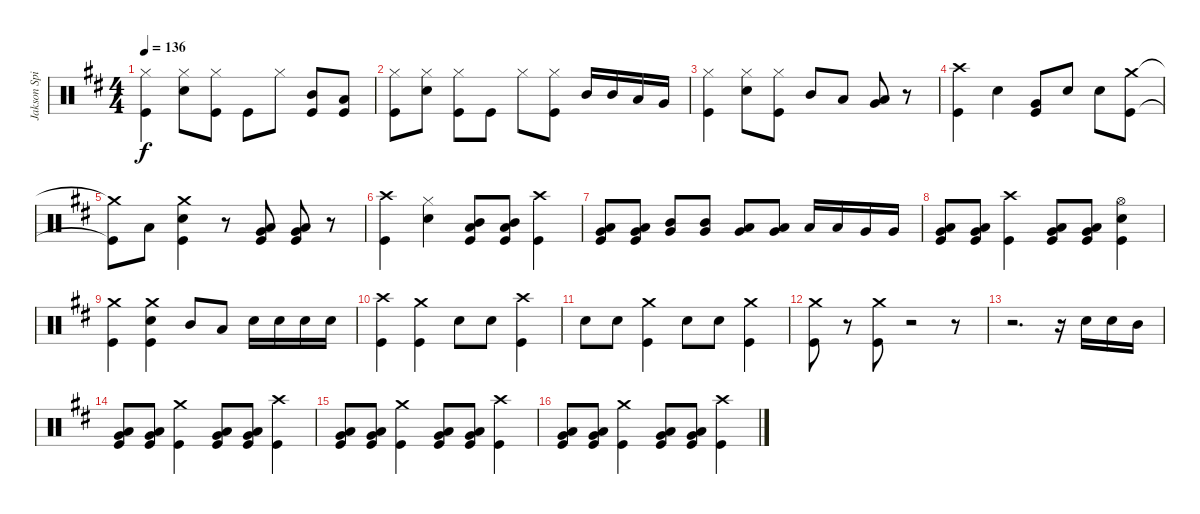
\track ("Jakson Spires Drums" "Jakson Spi") {instrument percussion}
\staff {score}
\articulation defaults
\ts (4 4)
\tempo 136
\clef neutral
\ks d
("Hi-Hat (closed)" "Kick (hit)").4{dy f} ("Hi-Hat (closed)" "Snare (hit) 2").8 ("Hi-Hat (closed)" "Kick (hit)").8 "Kick (hit)".8 "Hi-Hat (closed)".8 ("Mid Tom (hit)" "Kick (hit)").8 ("Low Tom (hit)" "Kick (hit)").8 |
("Hi-Hat (closed)" "Kick (hit)").8 ("Hi-Hat (closed)" "Snare (hit) 2").8 ("Hi-Hat (closed)" "Kick (hit)").8 "Kick (hit)".8 "Hi-Hat (closed)".8 ("Hi-Hat (closed)" "Kick (hit)").8 "Mid Tom (hit)".16 "Mid Tom (hit)".16 "Low Tom (hit)".16 "Very Low Tom (hit)".16 |
("Hi-Hat (closed)" "Kick (hit)").4 ("Hi-Hat (closed)" "Snare (hit) 2").8 ("Hi-Hat (closed)" "Kick (hit)").8 "Mid Tom (hit)".8 "Low Tom (hit)".8 ("Very Low Tom (hit)" "Low Floor Tom (hit)").8 r.8 |
("Crash high (hit)" "Kick (hit)").4 "Snare (hit) 2".4 ("Very Low Tom (hit)" "Kick (hit)").8 "Snare (hit) 2".8 "Snare (hit) 2".8 ("Crash medium (hit)" "Kick (hit)").8 |
("Crash medium (hit)"{t} "Kick (hit)"{t}).8 "Low Tom (hit)".8 ("Crash medium (hit)" "Snare (hit) 2" "Kick (hit)").4 r.8 ("Very Low Tom (hit)" "Low Floor Tom (hit)" "Kick (hit)").8 ("Very Low Tom (hit)" "Low Floor Tom (hit)" "Kick (hit)").8 r.8 |
("Crash high (hit)" "Kick (hit)").4 ("Hi-Hat (closed)" "Snare (hit) 2").4 ("Mid Tom (hit)" "Low Tom (hit)" "Kick (hit)").8 ("Mid Tom (hit)" "Low Tom (hit)" "Kick (hit)").8 ("Crash high (hit)" "Kick (hit)").4 |
("Very Low Tom (hit)" "Low Floor Tom (hit)" "Kick (hit)").8 ("Very Low Tom (hit)" "Low Floor Tom (hit)" "Kick (hit)").8 ("Mid Tom (hit)" "Very Low Tom (hit)").8 ("Mid Tom (hit)" "Very Low Tom (hit)").8 ("Low Tom (hit)" "Very Low Tom (hit)").8 ("Low Tom (hit)" "Very Low Tom (hit)").8 "Low Tom (hit)".16 "Low Tom (hit)".16 "Very Low Tom (hit)".16 "Very Low Tom (hit)".16 |
("Low Tom (hit)" "Very Low Tom (hit)" "Kick (hit)").8 ("Low Tom (hit)" "Very Low Tom (hit)" "Kick (hit)").8 ("Crash high (hit)" "Kick (hit)").4 ("Very Low Tom (hit)" "Low Floor Tom (hit)" "Kick (hit)").8 ("Very Low Tom (hit)" "Low Floor Tom (hit)" "Kick (hit)").8 ("Hi-Hat (open)" "Snare (hit) 2" "Kick (hit)").4 |
("Crash medium (hit)" "Kick (hit)").4 ("Crash medium (hit)" "Snare (hit) 2" "Kick (hit)").4 "Mid Tom (hit)".8 "Low Tom (hit)".8 "Snare (hit) 2".16 "Snare (hit) 2".16 "Snare (hit) 2".16 "Snare (hit) 2".16 |
("Crash high (hit)" "Kick (hit)").4 ("Crash medium (hit)" "Kick (hit)").4 "Snare (hit) 2".8 "Snare (hit) 2".8 ("Crash high (hit)" "Kick (hit)").4 |
"Snare (hit) 2".8 "Snare (hit) 2".8 ("Crash medium (hit)" "Kick (hit)").4 "Snare (hit) 2".8 "Snare (hit) 2".8 ("Crash medium (hit)" "Kick (hit)").4 |
("Crash medium (hit)" "Kick (hit)").8 r.8 ("Crash medium (hit)" "Kick (hit)").8 r.2 r.8 |
r.2{d} r.16 "Snare (hit) 2".16 "Snare (hit) 2".16 "Mid Tom (hit)".16 |
("Low Tom (hit)" "Very Low Tom (hit)" "Kick (hit)").8 ("Low Tom (hit)" "Very Low Tom (hit)" "Kick (hit)").8 ("Crash medium (hit)" "Kick (hit)").4 ("Low Tom (hit)" "Very Low Tom (hit)" "Kick (hit)").8 ("Low Tom (hit)" "Very Low Tom (hit)" "Kick (hit)").8 ("Crash high (hit)" "Kick (hit)").4 |
("Low Tom (hit)" "Very Low Tom (hit)" "Kick (hit)").8 ("Low Tom (hit)" "Very Low Tom (hit)" "Kick (hit)").8 ("Crash medium (hit)" "Kick (hit)").4 ("Low Tom (hit)" "Very Low Tom (hit)" "Kick (hit)").8 ("Low Tom (hit)" "Very Low Tom (hit)" "Kick (hit)").8 ("Crash high (hit)" "Kick (hit)").4 |
("Low Tom (hit)" "Very Low Tom (hit)" "Kick (hit)").8 ("Low Tom (hit)" "Very Low Tom (hit)" "Kick (hit)").8 ("Crash medium (hit)" "Kick (hit)").4 ("Low Tom (hit)" "Very Low Tom (hit)" "Kick (hit)").8 ("Low Tom (hit)" "Very Low Tom (hit)" "Kick (hit)").8 ("Crash high (hit)" "Kick (hit)").4
